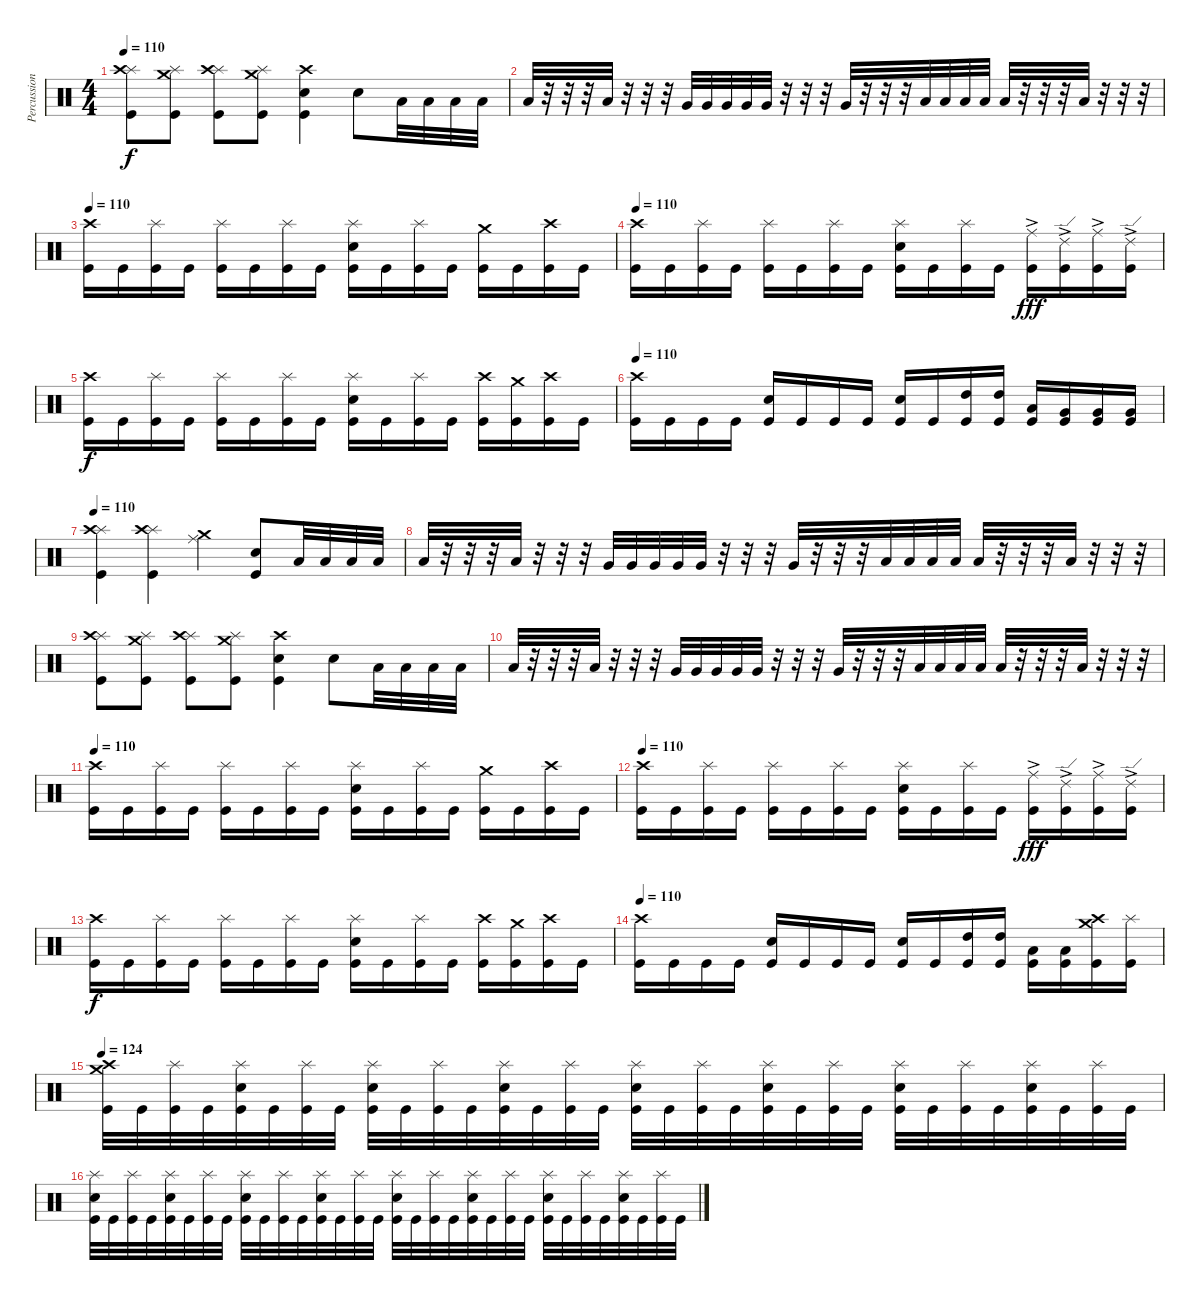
\track ("Percussion" "Percussion") {instrument percussion}
\staff {score}
\articulation defaults
\ts (4 4)
\tempo 110
\clef neutral
\ks c
("Splash (hit)" "Crash high (hit)" "Kick (hit)").8{dy f} ("Crash medium (hit)" "Splash (hit)" "Kick (hit)").8 ("Splash (hit)" "Crash high (hit)" "Kick (hit)").8 ("Crash medium (hit)" "Splash (hit)" "Kick (hit)").8 ("Crash high (hit)" "Electric Snare (hit)" "Kick (hit)").4 "Electric Snare (hit)".8 "Low Tom (hit)".32 "Low Tom (hit)".32 "Low Tom (hit)".32 "Low Tom (hit)".32 |
"Low Tom (hit)".32 r.32 r.32 r.32 "Low Tom (hit)".32 r.32 r.32 r.32 "Very Low Tom (hit)".32 "Very Low Tom (hit)".32 "Very Low Tom (hit)".32 "Very Low Tom (hit)".32 "Very Low Tom (hit)".32 r.32 r.32 r.32 "Very Low Tom (hit)".32 r.32 r.32 r.32 "Low Floor Tom (hit)".32 "Low Floor Tom (hit)".32 "Low Floor Tom (hit)".32 "Low Floor Tom (hit)".32 "Low Floor Tom (hit)".32 r.32 r.32 r.32 "Low Floor Tom (hit)".32 r.32 r.32 r.32 |
\tempo 110
("Crash high (hit)" "Kick (hit)").16 "Kick (hit)".16 ("Splash (hit)" "Kick (hit)").16 "Kick (hit)".16 ("Splash (hit)" "Kick (hit)").16 "Kick (hit)".16 ("Splash (hit)" "Kick (hit)").16 "Kick (hit)".16 ("Splash (hit)" "Electric Snare (hit)" "Kick (hit)").16 "Kick (hit)".16 ("Splash (hit)" "Kick (hit)").16 "Kick (hit)".16 ("Crash medium (hit)" "Kick (hit)").16 "Kick (hit)".16 ("Crash high (hit)" "Kick (hit)").16 "Kick (hit)".16 |
\tempo 110
("Crash high (hit)" "Kick (hit)").16 "Kick (hit)".16 ("Splash (hit)" "Kick (hit)").16 "Kick (hit)".16 ("Splash (hit)" "Kick (hit)").16 "Kick (hit)".16 ("Splash (hit)" "Kick (hit)").16 "Kick (hit)".16 ("Splash (hit)" "Electric Snare (hit)" "Kick (hit)").16 "Kick (hit)".16 ("Splash (hit)" "Kick (hit)").16 "Kick (hit)".16 ("Ride (middle)"{ac} "Kick (hit)").16{dy fff} ("Ride (edge) 2"{ac} "Kick (hit)").16 ("Ride (middle)"{ac} "Kick (hit)").16 ("Ride (edge) 2"{ac} "Kick (hit)").16 |
("Crash high (hit)" "Kick (hit)").16{dy f} "Kick (hit)".16 ("Splash (hit)" "Kick (hit)").16 "Kick (hit)".16 ("Splash (hit)" "Kick (hit)").16 "Kick (hit)".16 ("Splash (hit)" "Kick (hit)").16 "Kick (hit)".16 ("Splash (hit)" "Electric Snare (hit)" "Kick (hit)").16 "Kick (hit)".16 ("Splash (hit)" "Kick (hit)").16 "Kick (hit)".16 ("Crash high (hit)" "Kick (hit)").16 ("Crash medium (hit)" "Kick (hit)").16 ("Crash high (hit)" "Kick (hit)").16 "Kick (hit)".16 |
\tempo 110
("Crash high (hit)" "Kick (hit)").16 "Kick (hit)".16 "Kick (hit)".16 "Kick (hit)".16 ("Electric Snare (hit)" "Kick (hit)").16 "Kick (hit)".16 "Kick (hit)".16 "Kick (hit)".16 ("Electric Snare (hit)" "Kick (hit)").16 "Kick (hit)".16 ("High Tom (hit)" "Kick (hit)").16 ("High Tom (hit)" "Kick (hit)").16 ("Low Tom (hit)" "Kick (hit)").16 ("Very Low Tom (hit)" "Kick (hit)").16 ("Very Low Tom (hit)" "Kick (hit)").16 ("Very Low Tom (hit)" "Kick (hit)").16 |
\tempo 110
("Splash (hit)" "Crash high (hit)" "Kick (hit)").4 ("Splash (hit)" "Crash high (hit)" "Kick (hit)").4 ("Crash medium (hit)" "Ride (middle)").4 ("Electric Snare (hit)" "Kick (hit)").8 "Low Tom (hit)".32 "Low Tom (hit)".32 "Low Tom (hit)".32 "Low Tom (hit)".32 |
"Low Tom (hit)".32 r.32 r.32 r.32 "Low Tom (hit)".32 r.32 r.32 r.32 "Very Low Tom (hit)".32 "Very Low Tom (hit)".32 "Very Low Tom (hit)".32 "Very Low Tom (hit)".32 "Very Low Tom (hit)".32 r.32 r.32 r.32 "Very Low Tom (hit)".32 r.32 r.32 r.32 "Low Floor Tom (hit)".32 "Low Floor Tom (hit)".32 "Low Floor Tom (hit)".32 "Low Floor Tom (hit)".32 "Low Floor Tom (hit)".32 r.32 r.32 r.32 "Low Floor Tom (hit)".32 r.32 r.32 r.32 |
("Splash (hit)" "Crash high (hit)" "Kick (hit)").8 ("Crash medium (hit)" "Splash (hit)" "Kick (hit)").8 ("Splash (hit)" "Crash high (hit)" "Kick (hit)").8 ("Crash medium (hit)" "Splash (hit)" "Kick (hit)").8 ("Crash high (hit)" "Electric Snare (hit)" "Kick (hit)").4 "Electric Snare (hit)".8 "Low Tom (hit)".32 "Low Tom (hit)".32 "Low Tom (hit)".32 "Low Tom (hit)".32 |
"Low Tom (hit)".32 r.32 r.32 r.32 "Low Tom (hit)".32 r.32 r.32 r.32 "Very Low Tom (hit)".32 "Very Low Tom (hit)".32 "Very Low Tom (hit)".32 "Very Low Tom (hit)".32 "Very Low Tom (hit)".32 r.32 r.32 r.32 "Very Low Tom (hit)".32 r.32 r.32 r.32 "Low Floor Tom (hit)".32 "Low Floor Tom (hit)".32 "Low Floor Tom (hit)".32 "Low Floor Tom (hit)".32 "Low Floor Tom (hit)".32 r.32 r.32 r.32 "Low Floor Tom (hit)".32 r.32 r.32 r.32 |
\tempo 110
("Crash high (hit)" "Kick (hit)").16 "Kick (hit)".16 ("Splash (hit)" "Kick (hit)").16 "Kick (hit)".16 ("Splash (hit)" "Kick (hit)").16 "Kick (hit)".16 ("Splash (hit)" "Kick (hit)").16 "Kick (hit)".16 ("Splash (hit)" "Electric Snare (hit)" "Kick (hit)").16 "Kick (hit)".16 ("Splash (hit)" "Kick (hit)").16 "Kick (hit)".16 ("Crash medium (hit)" "Kick (hit)").16 "Kick (hit)".16 ("Crash high (hit)" "Kick (hit)").16 "Kick (hit)".16 |
\tempo 110
("Crash high (hit)" "Kick (hit)").16 "Kick (hit)".16 ("Splash (hit)" "Kick (hit)").16 "Kick (hit)".16 ("Splash (hit)" "Kick (hit)").16 "Kick (hit)".16 ("Splash (hit)" "Kick (hit)").16 "Kick (hit)".16 ("Splash (hit)" "Electric Snare (hit)" "Kick (hit)").16 "Kick (hit)".16 ("Splash (hit)" "Kick (hit)").16 "Kick (hit)".16 ("Ride (middle)"{ac} "Kick (hit)").16{dy fff} ("Ride (edge) 2"{ac} "Kick (hit)").16 ("Ride (middle)"{ac} "Kick (hit)").16 ("Ride (edge) 2"{ac} "Kick (hit)").16 |
("Crash high (hit)" "Kick (hit)").16{dy f} "Kick (hit)".16 ("Splash (hit)" "Kick (hit)").16 "Kick (hit)".16 ("Splash (hit)" "Kick (hit)").16 "Kick (hit)".16 ("Splash (hit)" "Kick (hit)").16 "Kick (hit)".16 ("Splash (hit)" "Electric Snare (hit)" "Kick (hit)").16 "Kick (hit)".16 ("Splash (hit)" "Kick (hit)").16 "Kick (hit)".16 ("Crash high (hit)" "Kick (hit)").16 ("Crash medium (hit)" "Kick (hit)").16 ("Crash high (hit)" "Kick (hit)").16 "Kick (hit)".16 |
\tempo 110
("Crash high (hit)" "Kick (hit)").16 "Kick (hit)".16 "Kick (hit)".16 "Kick (hit)".16 ("Electric Snare (hit)" "Kick (hit)").16 "Kick (hit)".16 "Kick (hit)".16 "Kick (hit)".16 ("Electric Snare (hit)" "Kick (hit)").16 "Kick (hit)".16 ("High Tom (hit)" "Kick (hit)").16 ("High Tom (hit)" "Kick (hit)").16 ("Low Tom (hit)" "Kick (hit)").16 ("Low Tom (hit)" "Kick (hit)").16 ("Crash high (hit)" "Crash medium (hit)" "Kick (hit)").16 ("Splash (hit)" "Kick (hit)").16 |
\tempo 118
\tempo 124
("Crash high (hit)" "Crash medium (hit)" "Kick (hit)").32 "Kick (hit)".32 ("Splash (hit)" "Kick (hit)").32 "Kick (hit)".32 ("Splash (hit)" "Electric Snare (hit)" "Kick (hit)").32 "Kick (hit)".32 ("Splash (hit)" "Kick (hit)").32 "Kick (hit)".32 ("Splash (hit)" "Electric Snare (hit)" "Kick (hit)").32 "Kick (hit)".32 ("Splash (hit)" "Kick (hit)").32 "Kick (hit)".32 ("Splash (hit)" "Electric Snare (hit)" "Kick (hit)").32 "Kick (hit)".32 ("Splash (hit)" "Kick (hit)").32 "Kick (hit)".32 ("Splash (hit)" "Electric Snare (hit)" "Kick (hit)").32 "Kick (hit)".32 ("Splash (hit)" "Kick (hit)").32 "Kick (hit)".32 ("Splash (hit)" "Electric Snare (hit)" "Kick (hit)").32 "Kick (hit)".32 ("Splash (hit)" "Kick (hit)").32 "Kick (hit)".32 ("Splash (hit)" "Electric Snare (hit)" "Kick (hit)").32 "Kick (hit)".32 ("Splash (hit)" "Kick (hit)").32 "Kick (hit)".32 ("Splash (hit)" "Electric Snare (hit)" "Kick (hit)").32 "Kick (hit)".32 ("Splash (hit)" "Kick (hit)").32 "Kick (hit)".32 |
("Splash (hit)" "Electric Snare (hit)" "Kick (hit)").32 "Kick (hit)".32 ("Splash (hit)" "Kick (hit)").32 "Kick (hit)".32 ("Splash (hit)" "Electric Snare (hit)" "Kick (hit)").32 "Kick (hit)".32 ("Splash (hit)" "Kick (hit)").32 "Kick (hit)".32 ("Splash (hit)" "Electric Snare (hit)" "Kick (hit)").32 "Kick (hit)".32 ("Splash (hit)" "Kick (hit)").32 "Kick (hit)".32 ("Splash (hit)" "Electric Snare (hit)" "Kick (hit)").32 "Kick (hit)".32 ("Splash (hit)" "Kick (hit)").32 "Kick (hit)".32 ("Splash (hit)" "Electric Snare (hit)" "Kick (hit)").32 "Kick (hit)".32 ("Splash (hit)" "Kick (hit)").32 "Kick (hit)".32 ("Splash (hit)" "Electric Snare (hit)" "Kick (hit)").32 "Kick (hit)".32 ("Splash (hit)" "Kick (hit)").32 "Kick (hit)".32 ("Splash (hit)" "Electric Snare (hit)" "Kick (hit)").32 "Kick (hit)".32 ("Splash (hit)" "Kick (hit)").32 "Kick (hit)".32 ("Splash (hit)" "Electric Snare (hit)" "Kick (hit)").32 "Kick (hit)".32 ("Splash (hit)" "Kick (hit)").32 "Kick (hit)".32
